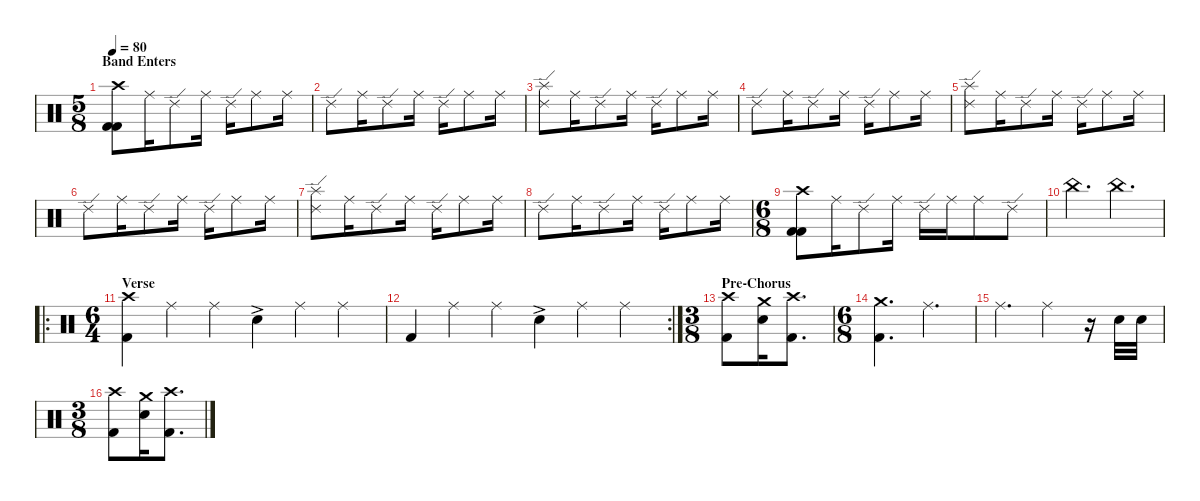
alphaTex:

\defaultSystemsLayout 4
\hideDynamics
\bracketExtendMode nobrackets
\singleTrackTrackNamePolicy hidden
\multiTrackTrackNamePolicy hidden
\firstSystemTrackNameMode fullname
\firstSystemTrackNameOrientation horizontal
\otherSystemsTrackNameOrientation horizontal
\track ("Martin Lopez" "drm.") {instrument percussion}
\staff {score}
\articulation defaults
\ts (5 8)
\section ("" "Band Enters")
\tempo 80
\clef neutral
\ks c
("Crash high (hit)" "Kick (hit) 2" "Kick (hit) 2").8{dy f beam Down} "Ride (middle)".16{beam Down} "Ride (edge) 2".8{beam Down} "Ride (middle)".16{beam Down} "Ride (edge) 2".16{beam Down} "Ride (middle)".8{beam Down} "Ride (middle)".16{beam Down} |
"Ride (edge) 2".8{beam Down} "Ride (middle)".16{beam Down} "Ride (edge) 2".8{beam Down} "Ride (middle)".16{beam Down} "Ride (edge) 2".16{beam Down} "Ride (middle)".8{beam Down} "Ride (middle)".16{beam Down} |
("Ride (edge) 2" "Splash (hit)").8{beam Down} "Ride (middle)".16{beam Down} "Ride (edge) 2".8{beam Down} "Ride (middle)".16{beam Down} "Ride (edge) 2".16{beam Down} "Ride (middle)".8{beam Down} "Ride (middle)".16{beam Down} |
"Ride (edge) 2".8{beam Down} "Ride (middle)".16{beam Down} "Ride (edge) 2".8{beam Down} "Ride (middle)".16{beam Down} "Ride (edge) 2".16{beam Down} "Ride (middle)".8{beam Down} "Ride (middle)".16{beam Down} |
("Ride (edge) 2" "Splash (hit)").8{beam Down} "Ride (middle)".16{beam Down} "Ride (edge) 2".8{beam Down} "Ride (middle)".16{beam Down} "Ride (edge) 2".16{beam Down} "Ride (middle)".8{beam Down} "Ride (middle)".16{beam Down} |
"Ride (edge) 2".8{beam Down} "Ride (middle)".16{beam Down} "Ride (edge) 2".8{beam Down} "Ride (middle)".16{beam Down} "Ride (edge) 2".16{beam Down} "Ride (middle)".8{beam Down} "Ride (middle)".16{beam Down} |
("Ride (edge) 2" "Splash (hit)").8{beam Down} "Ride (middle)".16{beam Down} "Ride (edge) 2".8{beam Down} "Ride (middle)".16{beam Down} "Ride (edge) 2".16{beam Down} "Ride (middle)".8{beam Down} "Ride (middle)".16{beam Down} |
"Ride (edge) 2".8{beam Down} "Ride (middle)".16{beam Down} "Ride (edge) 2".8{beam Down} "Ride (middle)".16{beam Down} "Ride (edge) 2".16{beam Down} "Ride (middle)".8{beam Down} "Ride (middle)".16{beam Down} |
\ts (6 8)
("Crash high (hit)" "Kick (hit) 2" "Kick (hit) 2").8{beam Down} "Ride (middle)".16{beam Down} "Ride (edge) 2".8{beam Down} "Ride (middle)".16{beam Down} "Ride (edge) 2".16{beam Down} "Ride (middle)".16{beam Down} "Ride (middle)".8{beam Down} "Ride (edge) 2".8{beam Down} |
"China (hit)".4{d beam Down} "China (hit)".4{d dy pp beam Down} |
\ro
\ts (6 4)
\section ("" "Verse")
("Crash high (hit)" "Kick (hit) 2").4{dy f beam Down} "Ride (middle)".4{beam Down} "Ride (middle)".4{beam Down} "Snare (hit) 2"{ac}.4{beam Down} "Ride (middle)".4{beam Down} "Ride (middle)".4{beam Down} |
\rc 2 "Kick (hit) 2".4{dy fff beam Up} "Ride (middle)".4{dy f beam Down} "Ride (middle)".4{beam Down} "Snare (hit) 2"{ac}.4{beam Down} "Ride (middle)".4{beam Down} "Ride (middle)".4{beam Down}
|
\ts (3 8)
\section ("" "Pre-Chorus")
("Crash high (hit)" "Kick (hit) 2").8{dy ff beam Down} ("Crash medium (hit)" "Snare (hit) 2").16{beam Down} ("Crash high (hit)" "Kick (hit) 2").8{d beam Down} |
\ts (6 8)
("Crash medium (hit)" "Kick (hit) 2").4{d dy f beam Down} "Ride (middle)".4{d beam Down} |
"Ride (middle)".4{d beam Down} "Ride (middle)".4{beam Down} r.16{beam Down} "Snare (hit) 2".32{dy mf beam Down} "Snare (hit) 2".32{beam Down} |
\ts (3 8)
("Crash high (hit)" "Kick (hit) 2").8{dy ff beam Down} ("Crash medium (hit)" "Snare (hit) 2").16{beam Down} ("Crash high (hit)" "Kick (hit) 2").8{d beam Down}
